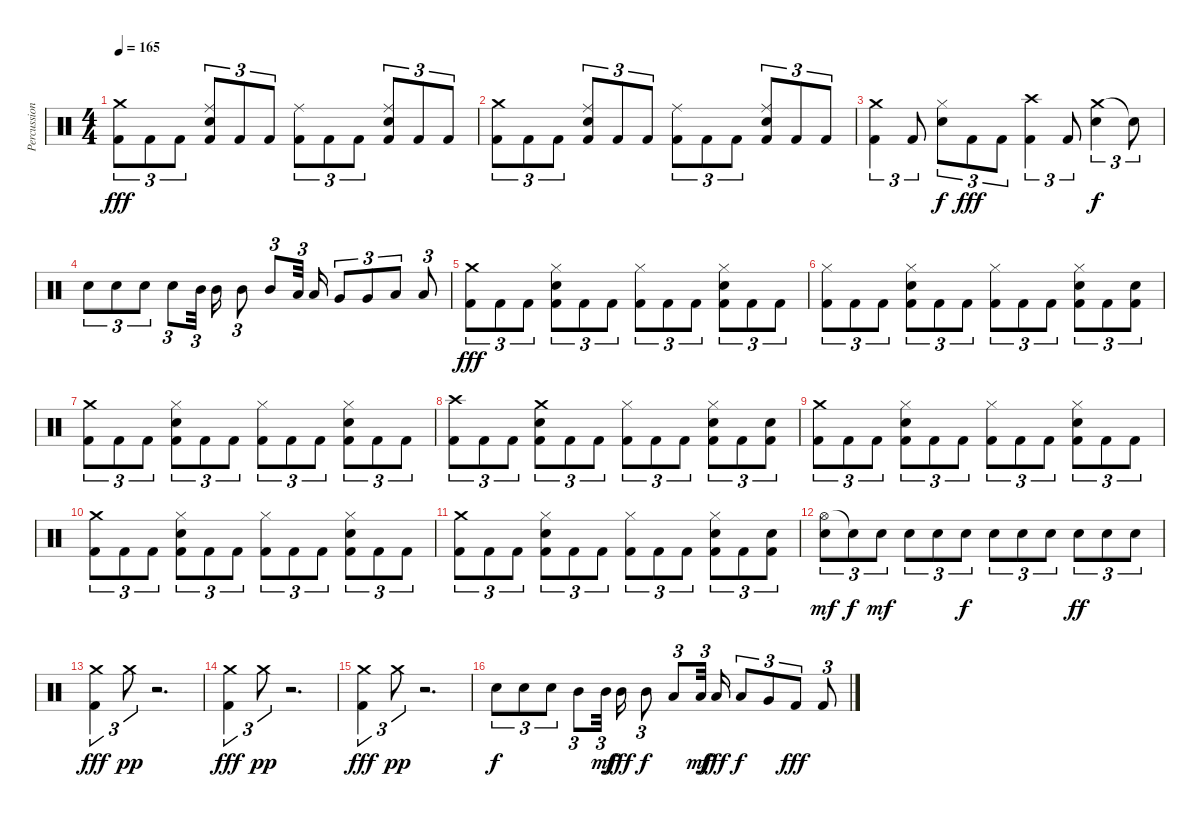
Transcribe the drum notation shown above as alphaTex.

\track ("Percussion" "Percussion") {instrument percussion}
\staff {score}
\articulation defaults
\ts (4 4)
\tempo 165
\clef neutral
\ks c
("Crash medium (hit)" "Kick (hit) 2").8{tu (3 2) dy fff} "Kick (hit) 2".8{tu (3 2)} "Kick (hit) 2".8{tu (3 2)} ("Ride (middle)" "Electric Snare (hit)" "Kick (hit) 2").8{tu (3 2)} "Kick (hit) 2".8{tu (3 2)} "Kick (hit) 2".8{tu (3 2)} ("Ride (middle)" "Kick (hit) 2").8{tu (3 2)} "Kick (hit) 2".8{tu (3 2)} "Kick (hit) 2".8{tu (3 2)} ("Ride (middle)" "Electric Snare (hit)" "Kick (hit) 2").8{tu (3 2)} "Kick (hit) 2".8{tu (3 2)} "Kick (hit) 2".8{tu (3 2)} |
("Crash medium (hit)" "Kick (hit) 2").8{tu (3 2)} "Kick (hit) 2".8{tu (3 2)} "Kick (hit) 2".8{tu (3 2)} ("Ride (middle)" "Electric Snare (hit)" "Kick (hit) 2").8{tu (3 2)} "Kick (hit) 2".8{tu (3 2)} "Kick (hit) 2".8{tu (3 2)} ("Ride (middle)" "Kick (hit) 2").8{tu (3 2)} "Kick (hit) 2".8{tu (3 2)} "Kick (hit) 2".8{tu (3 2)} ("Ride (middle)" "Electric Snare (hit)" "Kick (hit) 2").8{tu (3 2)} "Kick (hit) 2".8{tu (3 2)} "Kick (hit) 2".8{tu (3 2)} |
("Crash medium (hit)" "Kick (hit) 2").4{tu (3 2)} "Kick (hit) 2".8{tu (3 2)} ("Hi-Hat (closed)" "Electric Snare (hit)").8{tu (3 2) dy f} "Kick (hit) 2".8{tu (3 2) dy fff} "Kick (hit) 2".8{tu (3 2)} ("Crash high (hit)" "Kick (hit) 2").4{tu (3 2)} "Kick (hit) 2".8{tu (3 2)} ("Crash medium (hit)" "Electric Snare (hit)").4{tu (3 2) dy f} "Snare (hit)"{t}.8{tu (3 2)} |
"Electric Snare (hit)".8{tu (3 2)} "Electric Snare (hit)".8{tu (3 2)} "Electric Snare (hit)".8{tu (3 2)} "Electric Snare (hit)".8{tu (3 2)} "Mid Tom (hit)".32{tu (3 2)} "Mid Tom (hit)".16 "Mid Tom (hit)".8{tu (3 2)} "Mid Tom (hit)".8{tu (3 2)} "Low Tom (hit)".32{tu (3 2)} "Low Tom (hit)".16 "Very Low Tom (hit)".8{tu (3 2)} "Very Low Tom (hit)".8{tu (3 2)} "Low Floor Tom (hit)".8{tu (3 2)} "Low Floor Tom (hit)".8{tu (3 2)} |
("Crash medium (hit)" "Kick (hit) 2").8{tu (3 2) dy fff} "Kick (hit) 2".8{tu (3 2)} "Kick (hit) 2".8{tu (3 2)} ("Hi-Hat (closed)" "Electric Snare (hit)" "Kick (hit) 2").8{tu (3 2)} "Kick (hit) 2".8{tu (3 2)} "Kick (hit) 2".8{tu (3 2)} ("Hi-Hat (closed)" "Kick (hit) 2").8{tu (3 2)} "Kick (hit) 2".8{tu (3 2)} "Kick (hit) 2".8{tu (3 2)} ("Hi-Hat (closed)" "Electric Snare (hit)" "Kick (hit) 2").8{tu (3 2)} "Kick (hit) 2".8{tu (3 2)} "Kick (hit) 2".8{tu (3 2)} |
("Hi-Hat (closed)" "Kick (hit) 2").8{tu (3 2)} "Kick (hit) 2".8{tu (3 2)} "Kick (hit) 2".8{tu (3 2)} ("Hi-Hat (closed)" "Electric Snare (hit)" "Kick (hit) 2").8{tu (3 2)} "Kick (hit) 2".8{tu (3 2)} "Kick (hit) 2".8{tu (3 2)} ("Hi-Hat (closed)" "Kick (hit) 2").8{tu (3 2)} "Kick (hit) 2".8{tu (3 2)} "Kick (hit) 2".8{tu (3 2)} ("Hi-Hat (closed)" "Electric Snare (hit)" "Kick (hit) 2").8{tu (3 2)} "Kick (hit) 2".8{tu (3 2)} ("Electric Snare (hit)" "Kick (hit) 2").8{tu (3 2)} |
("Crash medium (hit)" "Kick (hit) 2").8{tu (3 2)} "Kick (hit) 2".8{tu (3 2)} "Kick (hit) 2".8{tu (3 2)} ("Hi-Hat (closed)" "Electric Snare (hit)" "Kick (hit) 2").8{tu (3 2)} "Kick (hit) 2".8{tu (3 2)} "Kick (hit) 2".8{tu (3 2)} ("Hi-Hat (closed)" "Kick (hit) 2").8{tu (3 2)} "Kick (hit) 2".8{tu (3 2)} "Kick (hit) 2".8{tu (3 2)} ("Hi-Hat (closed)" "Electric Snare (hit)" "Kick (hit) 2").8{tu (3 2)} "Kick (hit) 2".8{tu (3 2)} "Kick (hit) 2".8{tu (3 2)} |
("Crash high (hit)" "Kick (hit) 2").8{tu (3 2)} "Kick (hit) 2".8{tu (3 2)} "Kick (hit) 2".8{tu (3 2)} ("Crash medium (hit)" "Electric Snare (hit)" "Kick (hit) 2").8{tu (3 2)} "Kick (hit) 2".8{tu (3 2)} "Kick (hit) 2".8{tu (3 2)} ("Hi-Hat (closed)" "Kick (hit) 2").8{tu (3 2)} "Kick (hit) 2".8{tu (3 2)} "Kick (hit) 2".8{tu (3 2)} ("Hi-Hat (closed)" "Electric Snare (hit)" "Kick (hit) 2").8{tu (3 2)} "Kick (hit) 2".8{tu (3 2)} ("Electric Snare (hit)" "Kick (hit) 2").8{tu (3 2)} |
("Crash medium (hit)" "Kick (hit) 2").8{tu (3 2)} "Kick (hit) 2".8{tu (3 2)} "Kick (hit) 2".8{tu (3 2)} ("Hi-Hat (closed)" "Electric Snare (hit)" "Kick (hit) 2").8{tu (3 2)} "Kick (hit) 2".8{tu (3 2)} "Kick (hit) 2".8{tu (3 2)} ("Hi-Hat (closed)" "Kick (hit) 2").8{tu (3 2)} "Kick (hit) 2".8{tu (3 2)} "Kick (hit) 2".8{tu (3 2)} ("Hi-Hat (closed)" "Electric Snare (hit)" "Kick (hit) 2").8{tu (3 2)} "Kick (hit) 2".8{tu (3 2)} "Kick (hit) 2".8{tu (3 2)} |
("Crash medium (hit)" "Kick (hit) 2").8{tu (3 2)} "Kick (hit) 2".8{tu (3 2)} "Kick (hit) 2".8{tu (3 2)} ("Hi-Hat (closed)" "Electric Snare (hit)" "Kick (hit) 2").8{tu (3 2)} "Kick (hit) 2".8{tu (3 2)} "Kick (hit) 2".8{tu (3 2)} ("Hi-Hat (closed)" "Kick (hit) 2").8{tu (3 2)} "Kick (hit) 2".8{tu (3 2)} "Kick (hit) 2".8{tu (3 2)} ("Hi-Hat (closed)" "Electric Snare (hit)" "Kick (hit) 2").8{tu (3 2)} "Kick (hit) 2".8{tu (3 2)} "Kick (hit) 2".8{tu (3 2)} |
("Crash medium (hit)" "Kick (hit) 2").8{tu (3 2)} "Kick (hit) 2".8{tu (3 2)} "Kick (hit) 2".8{tu (3 2)} ("Hi-Hat (closed)" "Electric Snare (hit)" "Kick (hit) 2").8{tu (3 2)} "Kick (hit) 2".8{tu (3 2)} "Kick (hit) 2".8{tu (3 2)} ("Hi-Hat (closed)" "Kick (hit) 2").8{tu (3 2)} "Kick (hit) 2".8{tu (3 2)} "Kick (hit) 2".8{tu (3 2)} ("Hi-Hat (closed)" "Electric Snare (hit)" "Kick (hit) 2").8{tu (3 2)} "Kick (hit) 2".8{tu (3 2)} ("Electric Snare (hit)" "Kick (hit) 2").8{tu (3 2)} |
("Hi-Hat (open)" "Electric Snare (hit)").8{tu (3 2) dy mf} "Electric Snare (hit)"{t}.8{tu (3 2) dy f} "Electric Snare (hit)".8{tu (3 2) dy mf} "Electric Snare (hit)".8{tu (3 2)} "Electric Snare (hit)".8{tu (3 2)} "Electric Snare (hit)".8{tu (3 2) dy f} "Electric Snare (hit)".8{tu (3 2)} "Electric Snare (hit)".8{tu (3 2)} "Electric Snare (hit)".8{tu (3 2)} "Electric Snare (hit)".8{tu (3 2) dy ff} "Electric Snare (hit)".8{tu (3 2)} "Electric Snare (hit)".8{tu (3 2)} |
("Crash medium (hit)" "Kick (hit) 2").4{tu (3 2) dy fff} "Crash medium (hit)".8{tu (3 2) dy pp} r.2{d} |
("Crash medium (hit)" "Kick (hit) 2").4{tu (3 2) dy fff} "Crash medium (hit)".8{tu (3 2) dy pp} r.2{d} |
("Crash medium (hit)" "Kick (hit) 2").4{tu (3 2) dy fff} "Crash medium (hit)".8{tu (3 2) dy pp} r.2{d} |
"Electric Snare (hit)".8{tu (3 2) dy f} "Electric Snare (hit)".8{tu (3 2)} "Electric Snare (hit)".8{tu (3 2)} "Mid Tom (hit)".8{tu (3 2)} "Mid Tom (hit)".32{tu (3 2) dy mf} "Mid Tom (hit)".16{dy fff} "Mid Tom (hit)".8{tu (3 2) dy f} "Low Tom (hit)".8{tu (3 2)} "Low Tom (hit)".32{tu (3 2) dy mf} "Low Tom (hit)".16{dy fff} "Low Tom (hit)".8{tu (3 2) dy f} "Very Low Tom (hit)".8{tu (3 2)} "Kick (hit) 2".8{tu (3 2) dy fff} "Kick (hit) 2".8{tu (3 2)}
